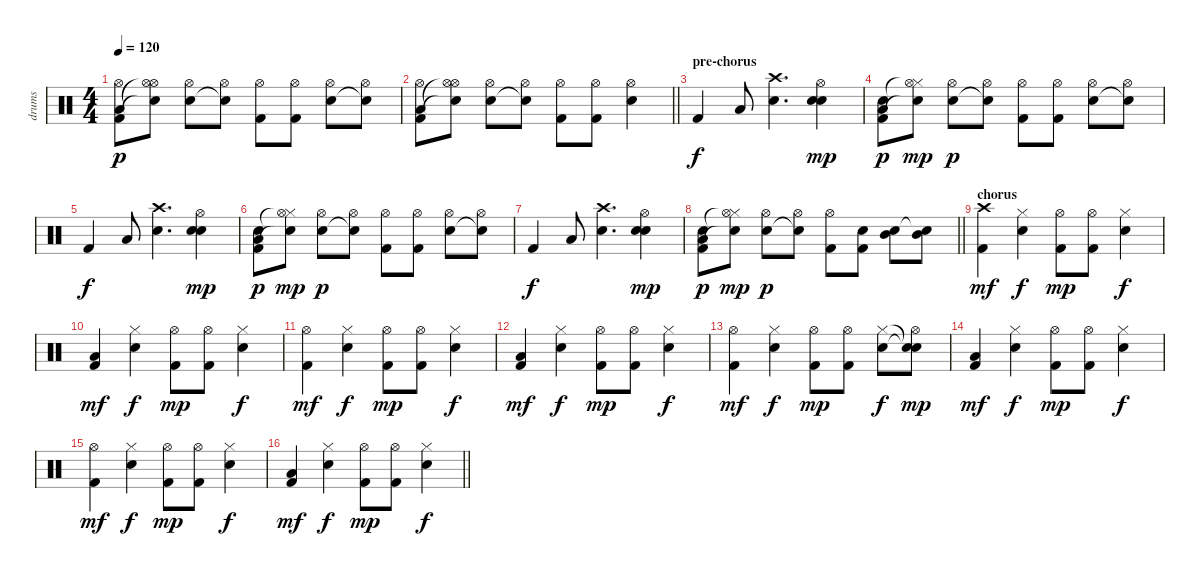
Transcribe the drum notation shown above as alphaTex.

\track ("drums" "drums") {instrument percussion}
\staff {score}
\articulation defaults
\ts (4 4)
\tempo 120
\clef neutral
\ks c
("Kick (hit) 2" "Hi-Hat (open)" "Low Floor Tom (hit)").8{dy p} ("Snare (hit)"{t} "Hi-Hat (open)" "Hi-Hat (open)"{t}).8 ("Electric Snare (hit)" "Hi-Hat (open)").8 ("Snare (hit)"{t} "Hi-Hat (open)").8 ("Kick (hit) 2" "Hi-Hat (open)").8 ("Kick (hit) 2" "Hi-Hat (open)").8 ("Electric Snare (hit)" "Hi-Hat (open)").8 ("Snare (hit)"{t} "Hi-Hat (open)").8 |
\barLineRight lightlight
("Kick (hit) 2" "Hi-Hat (open)" "Low Floor Tom (hit)").8 ("Snare (hit)"{t} "Hi-Hat (open)" "Hi-Hat (open)"{t}).8 ("Electric Snare (hit)" "Hi-Hat (open)").8 ("Snare (hit)"{t} "Hi-Hat (open)").8 ("Kick (hit) 2" "Hi-Hat (open)").8 ("Kick (hit) 2" "Hi-Hat (open)").8 ("Electric Snare (hit)" "Hi-Hat (open)").4 |
\section ("" "pre-chorus")
"Kick (hit) 2".4{dy f} "Low Floor Tom (hit)".8 ("Electric Snare (hit)" "Crash high (hit)").4{d} ("Electric Snare (hit)" "Electric Snare (hit)" "Hi-Hat (open)").4{dy mp} |
("Kick (hit) 2" "Low Floor Tom (hit)" "Electric Snare (hit)").8{dy p} ("Snare (hit)"{t} "Hi-Hat (closed)" "Hi-Hat (open)"{t}).8{dy mp} ("Electric Snare (hit)" "Hi-Hat (open)").8{dy p} ("Snare (hit)"{t} "Hi-Hat (open)").8 ("Kick (hit) 2" "Hi-Hat (open)").8 ("Kick (hit) 2" "Hi-Hat (open)").8 ("Electric Snare (hit)" "Hi-Hat (open)").8 ("Snare (hit)"{t} "Hi-Hat (open)").8 |
"Kick (hit) 2".4{dy f} "Low Floor Tom (hit)".8 ("Electric Snare (hit)" "Crash high (hit)").4{d} ("Electric Snare (hit)" "Electric Snare (hit)" "Hi-Hat (open)").4{dy mp} |
("Kick (hit) 2" "Low Floor Tom (hit)" "Electric Snare (hit)").8{dy p} ("Snare (hit)"{t} "Hi-Hat (closed)" "Hi-Hat (open)"{t}).8{dy mp} ("Electric Snare (hit)" "Hi-Hat (open)").8{dy p} ("Snare (hit)"{t} "Hi-Hat (open)").8 ("Kick (hit) 2" "Hi-Hat (open)").8 ("Kick (hit) 2" "Hi-Hat (open)").8 ("Electric Snare (hit)" "Hi-Hat (open)").8 ("Snare (hit)"{t} "Hi-Hat (open)").8 |
"Kick (hit) 2".4{dy f} "Low Floor Tom (hit)".8 ("Electric Snare (hit)" "Crash high (hit)").4{d} ("Electric Snare (hit)" "Electric Snare (hit)" "Hi-Hat (open)").4{dy mp} |
\barLineRight lightlight
("Kick (hit) 2" "Low Floor Tom (hit)" "Electric Snare (hit)").8{dy p} ("Snare (hit)"{t} "Hi-Hat (closed)" "Hi-Hat (open)"{t}).8{dy mp} ("Electric Snare (hit)" "Hi-Hat (open)").8{dy p} ("Snare (hit)"{t} "Hi-Hat (open)").8 ("Kick (hit) 2" "Hi-Hat (open)").8 ("Kick (hit) 2" "Electric Snare (hit)").8 ("Electric Snare (hit)" "Mid Tom (hit)").8 ("Snare (hit)"{t} "Mid Tom (hit)").8 |
\section ("" "chorus")
("Kick (hit) 2" "Crash high (hit)").4{dy mf} ("Electric Snare (hit)" "Hi-Hat (closed)").4{dy f} ("Kick (hit) 2" "Hi-Hat (open)").8{dy mp} ("Kick (hit) 2" "Hi-Hat (open)").8 ("Electric Snare (hit)" "Hi-Hat (closed)").4{dy f} |
("Kick (hit) 2" "Low Floor Tom (hit)").4{dy mf} ("Electric Snare (hit)" "Hi-Hat (closed)").4{dy f} ("Kick (hit) 2" "Hi-Hat (open)").8{dy mp} ("Kick (hit) 2" "Hi-Hat (open)").8 ("Electric Snare (hit)" "Hi-Hat (closed)").4{dy f} |
("Kick (hit) 2" "Hi-Hat (open)").4{dy mf} ("Electric Snare (hit)" "Hi-Hat (closed)").4{dy f} ("Kick (hit) 2" "Hi-Hat (open)").8{dy mp} ("Kick (hit) 2" "Hi-Hat (open)").8 ("Electric Snare (hit)" "Hi-Hat (closed)").4{dy f} |
("Kick (hit) 2" "Low Floor Tom (hit)").4{dy mf} ("Electric Snare (hit)" "Hi-Hat (closed)").4{dy f} ("Kick (hit) 2" "Hi-Hat (open)").8{dy mp} ("Kick (hit) 2" "Hi-Hat (open)").8 ("Electric Snare (hit)" "Hi-Hat (closed)").4{dy f} |
("Kick (hit) 2" "Hi-Hat (open)").4{dy mf} ("Electric Snare (hit)" "Hi-Hat (closed)").4{dy f} ("Kick (hit) 2" "Hi-Hat (open)").8{dy mp} ("Kick (hit) 2" "Hi-Hat (open)").8 ("Electric Snare (hit)" "Hi-Hat (closed)").8{dy f} ("Snare (hit)"{t} "Snare (hit)"{t} "Hi-Hat (open)").8{dy mp} |
("Kick (hit) 2" "Low Floor Tom (hit)").4{dy mf} ("Electric Snare (hit)" "Hi-Hat (closed)").4{dy f} ("Kick (hit) 2" "Hi-Hat (open)").8{dy mp} ("Kick (hit) 2" "Hi-Hat (open)").8 ("Electric Snare (hit)" "Hi-Hat (closed)").4{dy f} |
("Kick (hit) 2" "Hi-Hat (open)").4{dy mf} ("Electric Snare (hit)" "Hi-Hat (closed)").4{dy f} ("Kick (hit) 2" "Hi-Hat (open)").8{dy mp} ("Kick (hit) 2" "Hi-Hat (open)").8 ("Electric Snare (hit)" "Hi-Hat (closed)").4{dy f} |
\barLineRight lightlight
("Kick (hit) 2" "Low Floor Tom (hit)").4{dy mf} ("Electric Snare (hit)" "Hi-Hat (closed)").4{dy f} ("Kick (hit) 2" "Hi-Hat (open)").8{dy mp} ("Kick (hit) 2" "Hi-Hat (open)").8 ("Electric Snare (hit)" "Hi-Hat (closed)").4{dy f}
